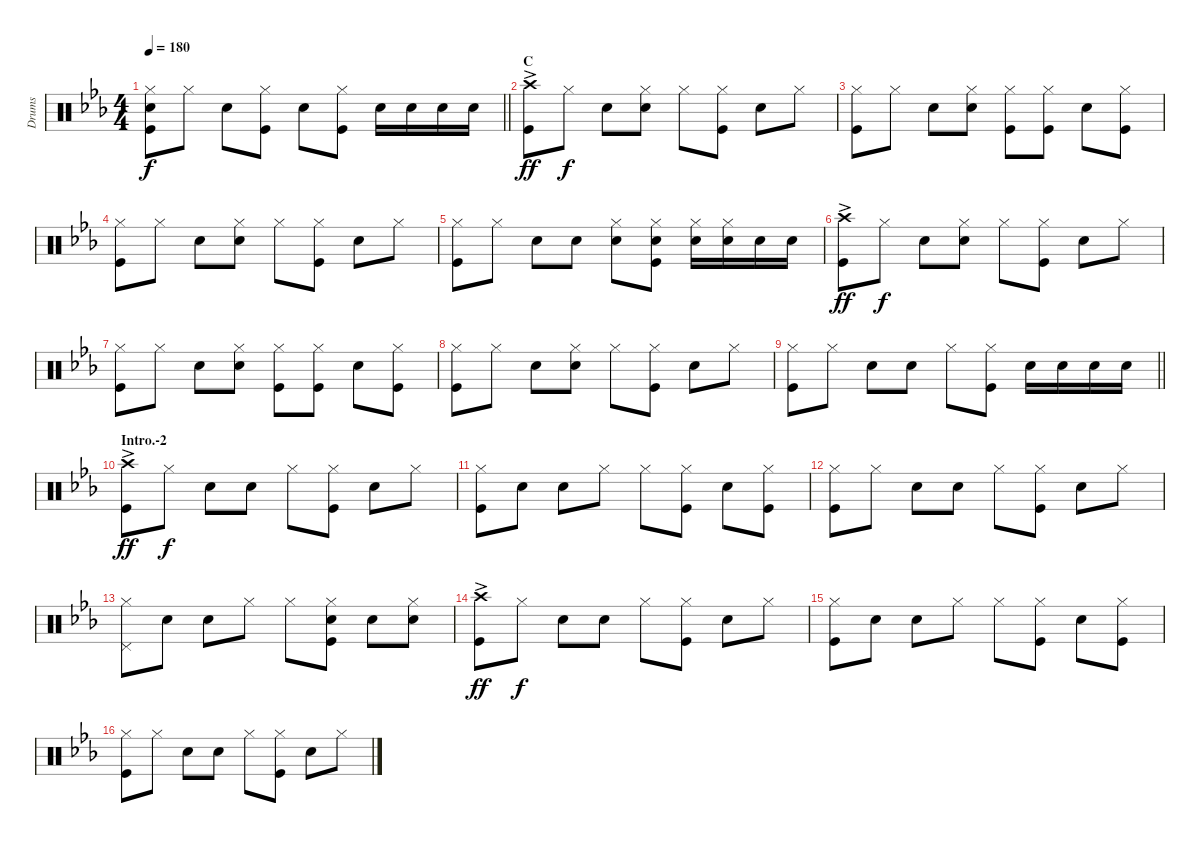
\track ("Drums" "Drums") {instrument percussion}
\staff {score}
\articulation defaults
\ts (4 4)
\tempo 180
\clef neutral
\barLineRight lightlight
\ks cminor
("Hi-Hat (closed)" "Kick (hit)" "Snare (hit) 2").8{dy f} "Hi-Hat (closed)".8 "Snare (hit) 2".8 ("Hi-Hat (closed)" "Kick (hit)").8 "Snare (hit) 2".8 ("Kick (hit)" "Hi-Hat (closed)").8 "Snare (hit) 2".16 "Snare (hit) 2".16 "Snare (hit) 2".16 "Snare (hit) 2".16 |
\section ("" "C")
("Crash high (hit)"{ac} "Kick (hit)").8{dy ff} "Hi-Hat (closed)".8{dy f} "Snare (hit) 2".8 ("Snare (hit) 2" "Hi-Hat (closed)").8 "Hi-Hat (closed)".8 ("Kick (hit)" "Hi-Hat (closed)").8 "Snare (hit) 2".8 "Hi-Hat (closed)".8 |
("Hi-Hat (closed)" "Kick (hit)").8 "Hi-Hat (closed)".8 "Snare (hit) 2".8 ("Snare (hit) 2" "Hi-Hat (closed)").8 ("Hi-Hat (closed)" "Kick (hit)").8 ("Kick (hit)" "Hi-Hat (closed)").8 "Snare (hit) 2".8 ("Kick (hit)" "Hi-Hat (closed)").8 |
("Hi-Hat (closed)" "Kick (hit)").8 "Hi-Hat (closed)".8 "Snare (hit) 2".8 ("Snare (hit) 2" "Hi-Hat (closed)").8 "Hi-Hat (closed)".8 ("Hi-Hat (closed)" "Kick (hit)").8 "Snare (hit) 2".8 "Hi-Hat (closed)".8 |
("Hi-Hat (closed)" "Kick (hit)").8 "Hi-Hat (closed)".8 "Snare (hit) 2".8 "Snare (hit) 2".8 ("Snare (hit) 2" "Hi-Hat (closed)").8 ("Snare (hit) 2" "Kick (hit)" "Hi-Hat (closed)").8 ("Hi-Hat (closed)" "Snare (hit) 2").16 ("Snare (hit) 2" "Hi-Hat (closed)").16 "Snare (hit) 2".16 "Snare (hit) 2".16 |
("Crash high (hit)"{ac} "Kick (hit)").8{dy ff} "Hi-Hat (closed)".8{dy f} "Snare (hit) 2".8 ("Snare (hit) 2" "Hi-Hat (closed)").8 "Hi-Hat (closed)".8 ("Hi-Hat (closed)" "Kick (hit)").8 "Snare (hit) 2".8 "Hi-Hat (closed)".8 |
("Hi-Hat (closed)" "Kick (hit)").8 "Hi-Hat (closed)".8 "Snare (hit) 2".8 ("Snare (hit) 2" "Hi-Hat (closed)").8 ("Hi-Hat (closed)" "Kick (hit)").8 ("Kick (hit)" "Hi-Hat (closed)").8 "Snare (hit) 2".8 ("Kick (hit)" "Hi-Hat (closed)").8 |
("Hi-Hat (closed)" "Kick (hit)").8 "Hi-Hat (closed)".8 "Snare (hit) 2".8 ("Snare (hit) 2" "Hi-Hat (closed)").8 "Hi-Hat (closed)".8 ("Hi-Hat (closed)" "Kick (hit)").8 "Snare (hit) 2".8 "Hi-Hat (closed)".8 |
\barLineRight lightlight
("Hi-Hat (closed)" "Kick (hit)").8 "Hi-Hat (closed)".8 "Snare (hit) 2".8 "Snare (hit) 2".8 "Hi-Hat (closed)".8 ("Hi-Hat (closed)" "Kick (hit)").8 "Snare (hit) 2".16 "Snare (hit) 2".16 "Snare (hit) 2".16 "Snare (hit) 2".16 |
\section ("" "Intro.-2")
("Crash high (hit)"{ac} "Kick (hit)").8{dy ff} "Hi-Hat (closed)".8{dy f} "Snare (hit) 2".8 "Snare (hit) 2".8 "Hi-Hat (closed)".8 ("Hi-Hat (closed)" "Kick (hit)").8 "Snare (hit) 2".8 "Hi-Hat (closed)".8 |
("Hi-Hat (closed)" "Kick (hit)").8 "Snare (hit) 2".8 "Snare (hit) 2".8 "Hi-Hat (closed)".8 "Hi-Hat (closed)".8 ("Hi-Hat (closed)" "Kick (hit)").8 "Snare (hit) 2".8 ("Kick (hit)" "Hi-Hat (closed)").8 |
("Kick (hit)" "Hi-Hat (closed)").8 "Hi-Hat (closed)".8 "Snare (hit) 2".8 "Snare (hit) 2".8 "Hi-Hat (closed)".8 ("Hi-Hat (closed)" "Kick (hit)").8 "Snare (hit) 2".8 "Hi-Hat (closed)".8 |
("Hi-Hat (closed)" "Pedal Hi-Hat (hit)").8 "Snare (hit) 2".8 "Snare (hit) 2".8 "Hi-Hat (closed)".8 "Hi-Hat (closed)".8 ("Hi-Hat (closed)" "Snare (hit) 2" "Kick (hit)").8 "Snare (hit) 2".8 ("Snare (hit) 2" "Hi-Hat (closed)").8 |
("Crash high (hit)"{ac} "Kick (hit)").8{dy ff} "Hi-Hat (closed)".8{dy f} "Snare (hit) 2".8 "Snare (hit) 2".8 "Hi-Hat (closed)".8 ("Hi-Hat (closed)" "Kick (hit)").8 "Snare (hit) 2".8 "Hi-Hat (closed)".8 |
("Hi-Hat (closed)" "Kick (hit)").8 "Snare (hit) 2".8 "Snare (hit) 2".8 "Hi-Hat (closed)".8 "Hi-Hat (closed)".8 ("Hi-Hat (closed)" "Kick (hit)").8 "Snare (hit) 2".8 ("Kick (hit)" "Hi-Hat (closed)").8 |
("Kick (hit)" "Hi-Hat (closed)").8 "Hi-Hat (closed)".8 "Snare (hit) 2".8 "Snare (hit) 2".8 "Hi-Hat (closed)".8 ("Hi-Hat (closed)" "Kick (hit)").8 "Snare (hit) 2".8 "Hi-Hat (closed)".8
